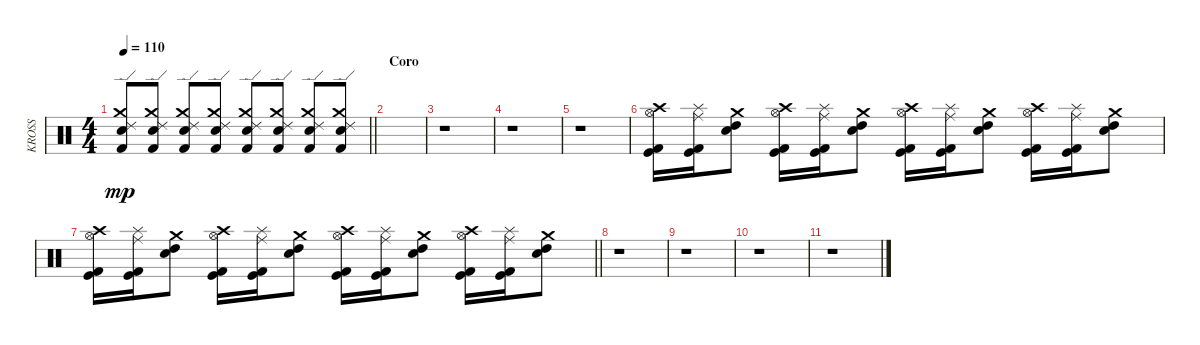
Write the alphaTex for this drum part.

\track ("KROSS" "KROSS") {instrument percussion}
\staff {score}
\articulation defaults
\ts (4 4)
\tempo 110
\clef neutral
\barLineRight lightlight
\ks c
("Ride (edge) 2" "Crash medium (hit)" "Snare (hit) 2" "Kick (hit) 2").8{dy mp} ("Ride (edge) 2" "Crash medium (hit)" "Snare (hit) 2" "Kick (hit) 2").8 ("Ride (edge) 2" "Crash medium (hit)" "Snare (hit) 2" "Kick (hit) 2").8 ("Ride (edge) 2" "Crash medium (hit)" "Snare (hit) 2" "Kick (hit) 2").8 ("Ride (edge) 2" "Crash medium (hit)" "Snare (hit) 2" "Kick (hit) 2").8 ("Ride (edge) 2" "Crash medium (hit)" "Snare (hit) 2" "Kick (hit) 2").8 ("Ride (edge) 2" "Crash medium (hit)" "Snare (hit) 2" "Kick (hit) 2").8 ("Ride (edge) 2" "Crash medium (hit)" "Snare (hit) 2" "Kick (hit) 2").8 |
\section ("" "Coro")
|
r.1 |
r.1 |
r.1 |
("Crash high (hit)" "Hi-Hat (open)" "Kick (hit) 2" "Kick (hit)").16 ("Ride (middle)" "Splash (hit)" "Kick (hit) 2" "Kick (hit)").16 ("Crash medium (hit)" "Electric Snare (hit)" "High Tom (hit)").8 ("Crash high (hit)" "Hi-Hat (open)" "Kick (hit) 2" "Kick (hit)").16 ("Ride (middle)" "Splash (hit)" "Kick (hit) 2" "Kick (hit)").16 ("Crash medium (hit)" "Electric Snare (hit)" "High Tom (hit)").8 ("Crash high (hit)" "Hi-Hat (open)" "Kick (hit) 2" "Kick (hit)").16 ("Ride (middle)" "Splash (hit)" "Kick (hit) 2" "Kick (hit)").16 ("Crash medium (hit)" "Electric Snare (hit)" "High Tom (hit)").8 ("Crash high (hit)" "Hi-Hat (open)" "Kick (hit) 2" "Kick (hit)").16 ("Ride (middle)" "Splash (hit)" "Kick (hit) 2" "Kick (hit)").16 ("Crash medium (hit)" "Electric Snare (hit)" "High Tom (hit)").8 |
\barLineRight lightlight
("Crash high (hit)" "Hi-Hat (open)" "Kick (hit) 2" "Kick (hit)").16 ("Ride (middle)" "Splash (hit)" "Kick (hit) 2" "Kick (hit)").16 ("Crash medium (hit)" "Electric Snare (hit)" "High Tom (hit)").8 ("Crash high (hit)" "Hi-Hat (open)" "Kick (hit) 2" "Kick (hit)").16 ("Ride (middle)" "Splash (hit)" "Kick (hit) 2" "Kick (hit)").16 ("Crash medium (hit)" "Electric Snare (hit)" "High Tom (hit)").8 ("Crash high (hit)" "Hi-Hat (open)" "Kick (hit) 2" "Kick (hit)").16 ("Ride (middle)" "Splash (hit)" "Kick (hit) 2" "Kick (hit)").16 ("Crash medium (hit)" "Electric Snare (hit)" "High Tom (hit)").8 ("Crash high (hit)" "Hi-Hat (open)" "Kick (hit) 2" "Kick (hit)").16 ("Ride (middle)" "Splash (hit)" "Kick (hit) 2" "Kick (hit)").16 ("Crash medium (hit)" "Electric Snare (hit)" "High Tom (hit)").8 |
r.1 |
r.1 |
r.1 |
r.1
